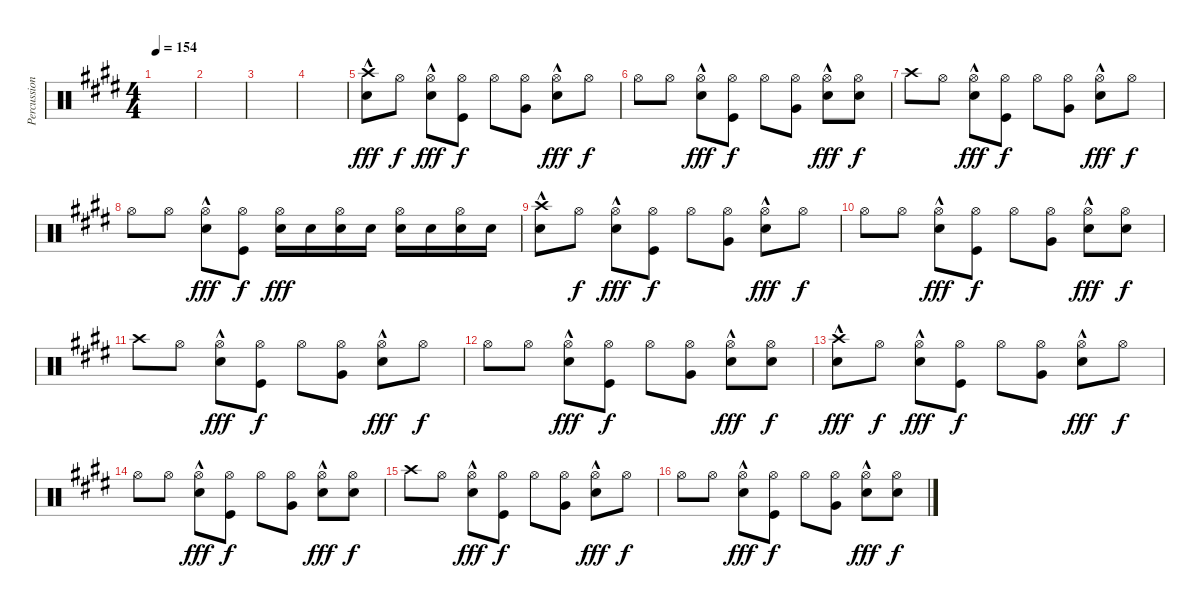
\track ("Percussion (Derek Grant)" "Percussion") {instrument percussion}
\staff {score}
\articulation defaults
\ts (4 4)
\tempo 154
\clef neutral
\ks c#minor
|
|
|
|
("Crash high (hit)"{hac} "Electric Snare (hit)").8{dy fff} "Hi-Hat (open)".8{dy f} ("Hi-Hat (open)" "Snare (hit) 2"{hac}).8{dy fff} ("Hi-Hat (open)" "Kick (hit)").8{dy f} "Hi-Hat (open)".8 ("Hi-Hat (open)" "Very Low Tom (hit)").8 ("Hi-Hat (open)" "Snare (hit) 2"{hac}).8{dy fff} "Hi-Hat (open)".8{dy f} |
"Hi-Hat (open)".8 "Hi-Hat (open)".8 ("Hi-Hat (open)" "Snare (hit) 2"{hac}).8{dy fff} ("Hi-Hat (open)" "Kick (hit)").8{dy f} "Hi-Hat (open)".8 ("Hi-Hat (open)" "Very Low Tom (hit)").8 ("Hi-Hat (open)" "Snare (hit) 2"{hac}).8{dy fff} ("Hi-Hat (open)" "Electric Snare (hit)").8{dy f} |
"Crash high (hit)".8 "Hi-Hat (open)".8 ("Hi-Hat (open)" "Snare (hit) 2"{hac}).8{dy fff} ("Hi-Hat (open)" "Kick (hit)").8{dy f} "Hi-Hat (open)".8 ("Hi-Hat (open)" "Very Low Tom (hit)").8 ("Hi-Hat (open)" "Snare (hit) 2"{hac}).8{dy fff} "Hi-Hat (open)".8{dy f} |
"Hi-Hat (open)".8 "Hi-Hat (open)".8 ("Hi-Hat (open)" "Snare (hit) 2"{hac}).8{dy fff} ("Hi-Hat (open)" "Kick (hit)").8{dy f} ("Hi-Hat (open)" "Snare (hit) 2").16{dy fff} "Snare (hit) 2".16 ("Hi-Hat (open)" "Snare (hit) 2").16 "Snare (hit) 2".16 ("Hi-Hat (open)" "Snare (hit) 2").16 "Snare (hit) 2".16 ("Hi-Hat (open)" "Snare (hit) 2").16 "Snare (hit) 2".16 |
("Crash high (hit)"{hac} "Electric Snare (hit)").8 "Hi-Hat (open)".8{dy f} ("Hi-Hat (open)" "Snare (hit) 2"{hac}).8{dy fff} ("Hi-Hat (open)" "Kick (hit)").8{dy f} "Hi-Hat (open)".8 ("Hi-Hat (open)" "Very Low Tom (hit)").8 ("Hi-Hat (open)" "Snare (hit) 2"{hac}).8{dy fff} "Hi-Hat (open)".8{dy f} |
"Hi-Hat (open)".8 "Hi-Hat (open)".8 ("Hi-Hat (open)" "Snare (hit) 2"{hac}).8{dy fff} ("Hi-Hat (open)" "Kick (hit)").8{dy f} "Hi-Hat (open)".8 ("Hi-Hat (open)" "Very Low Tom (hit)").8 ("Hi-Hat (open)" "Snare (hit) 2"{hac}).8{dy fff} ("Hi-Hat (open)" "Electric Snare (hit)").8{dy f} |
"Crash high (hit)".8 "Hi-Hat (open)".8 ("Hi-Hat (open)" "Snare (hit) 2"{hac}).8{dy fff} ("Hi-Hat (open)" "Kick (hit)").8{dy f} "Hi-Hat (open)".8 ("Hi-Hat (open)" "Very Low Tom (hit)").8 ("Hi-Hat (open)" "Snare (hit) 2"{hac}).8{dy fff} "Hi-Hat (open)".8{dy f} |
"Hi-Hat (open)".8 "Hi-Hat (open)".8 ("Hi-Hat (open)" "Snare (hit) 2"{hac}).8{dy fff} ("Hi-Hat (open)" "Kick (hit)").8{dy f} "Hi-Hat (open)".8 ("Hi-Hat (open)" "Very Low Tom (hit)").8 ("Hi-Hat (open)" "Snare (hit) 2"{hac}).8{dy fff} ("Hi-Hat (open)" "Electric Snare (hit)").8{dy f} |
("Crash high (hit)"{hac} "Electric Snare (hit)").8{dy fff} "Hi-Hat (open)".8{dy f} ("Hi-Hat (open)" "Snare (hit) 2"{hac}).8{dy fff} ("Hi-Hat (open)" "Kick (hit)").8{dy f} "Hi-Hat (open)".8 ("Hi-Hat (open)" "Very Low Tom (hit)").8 ("Hi-Hat (open)" "Snare (hit) 2"{hac}).8{dy fff} "Hi-Hat (open)".8{dy f} |
"Hi-Hat (open)".8 "Hi-Hat (open)".8 ("Hi-Hat (open)" "Snare (hit) 2"{hac}).8{dy fff} ("Hi-Hat (open)" "Kick (hit)").8{dy f} "Hi-Hat (open)".8 ("Hi-Hat (open)" "Very Low Tom (hit)").8 ("Hi-Hat (open)" "Snare (hit) 2"{hac}).8{dy fff} ("Hi-Hat (open)" "Electric Snare (hit)").8{dy f} |
"Crash high (hit)".8 "Hi-Hat (open)".8 ("Hi-Hat (open)" "Snare (hit) 2"{hac}).8{dy fff} ("Hi-Hat (open)" "Kick (hit)").8{dy f} "Hi-Hat (open)".8 ("Hi-Hat (open)" "Very Low Tom (hit)").8 ("Hi-Hat (open)" "Snare (hit) 2"{hac}).8{dy fff} "Hi-Hat (open)".8{dy f} |
"Hi-Hat (open)".8 "Hi-Hat (open)".8 ("Hi-Hat (open)" "Snare (hit) 2"{hac}).8{dy fff} ("Hi-Hat (open)" "Kick (hit)").8{dy f} "Hi-Hat (open)".8 ("Hi-Hat (open)" "Very Low Tom (hit)").8 ("Hi-Hat (open)" "Snare (hit) 2"{hac}).8{dy fff} ("Hi-Hat (open)" "Electric Snare (hit)").8{dy f}
